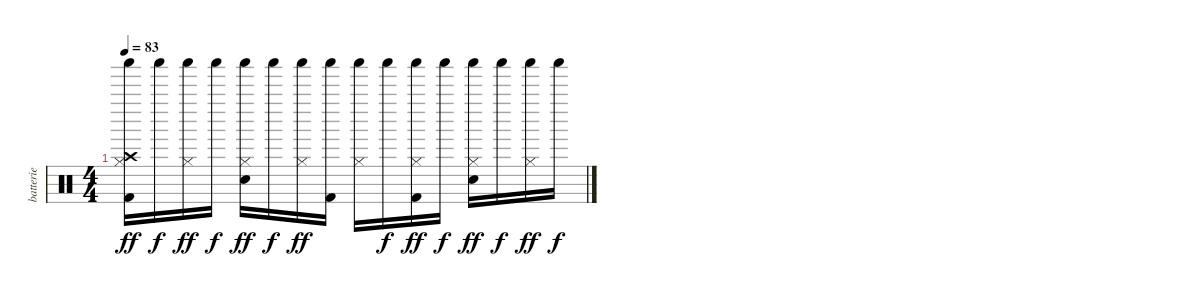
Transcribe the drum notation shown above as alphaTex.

\track ("batterie" "batterie") {instrument percussion}
\staff {score}
\articulation defaults
\ts (4 4)
\tempo 83
\clef neutral
\ks c
("Kick (hit) 2" "Hi-Hat (closed)" "Crash high (hit)" "Shaker (hit)").16{dy ff} "Shaker (hit)".16{dy f} ("Hi-Hat (closed)" "Shaker (hit)").16{dy ff} "Shaker (hit)".16{dy f} ("Snare (hit) 2" "Hi-Hat (closed)" "Shaker (hit)").16{dy ff} "Shaker (hit)".16{dy f} ("Hi-Hat (closed)" "Shaker (hit)").16{dy ff} ("Kick (hit) 2" "Shaker (hit)").16 ("Hi-Hat (closed)" "Shaker (hit)").16 "Shaker (hit)".16{dy f} ("Kick (hit) 2" "Hi-Hat (closed)" "Shaker (hit)").16{dy ff} "Shaker (hit)".16{dy f} ("Snare (hit) 2" "Hi-Hat (closed)" "Shaker (hit)").16{dy ff} "Shaker (hit)".16{dy f} ("Hi-Hat (closed)" "Shaker (hit)").16{dy ff} "Shaker (hit)".16{dy f}
